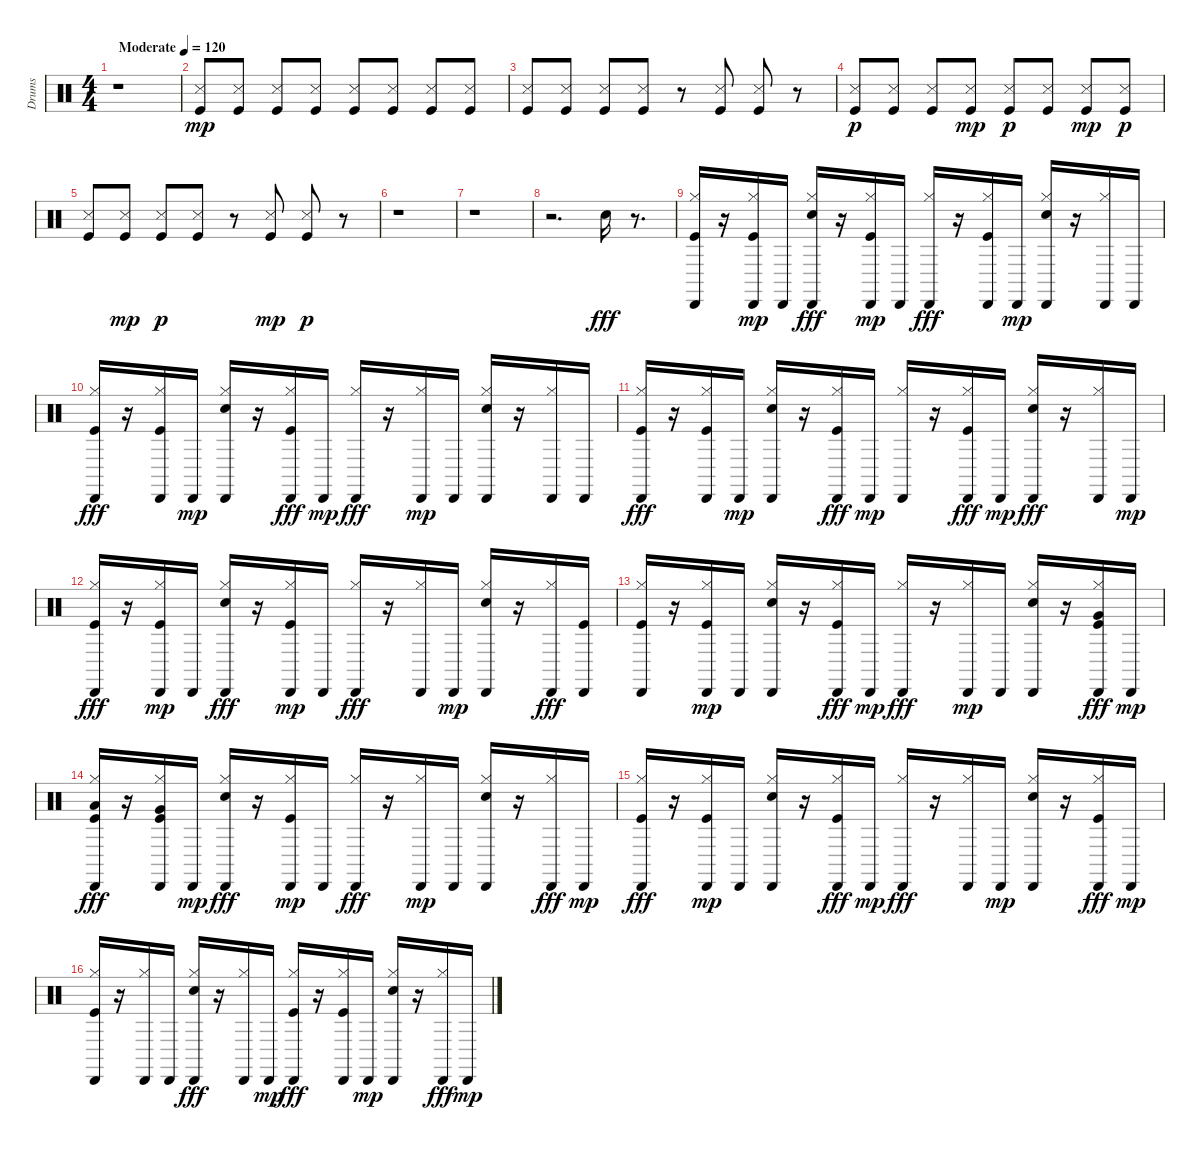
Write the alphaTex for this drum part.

\track ("Drums" "Drums") {instrument percussion}
\staff {score}
\articulation defaults
\ts (4 4)
\tempo (120 "Moderate")
\clef neutral
\ks c
r.1{dy mp} |
("Snare (side stick) 3" "Kick (hit)").8 ("Snare (side stick) 3" "Kick (hit)").8 ("Snare (side stick) 3" "Kick (hit)").8 ("Snare (side stick) 3" "Kick (hit)").8 ("Snare (side stick) 3" "Kick (hit)").8 ("Snare (side stick) 3" "Kick (hit)").8 ("Snare (side stick) 3" "Kick (hit)").8 ("Snare (side stick) 3" "Kick (hit)").8 |
("Snare (side stick) 3" "Kick (hit)").8 ("Snare (side stick) 3" "Kick (hit)").8 ("Snare (side stick) 3" "Kick (hit)").8 ("Snare (side stick) 3" "Kick (hit)").8 r.8 ("Snare (side stick) 3" "Kick (hit)").8 ("Snare (side stick) 3" "Kick (hit)").8 r.8 |
("Kick (hit)" "Snare (side stick) 3").8{dy p} ("Kick (hit)" "Snare (side stick) 3").8 ("Kick (hit)" "Snare (side stick) 3").8 ("Snare (side stick) 3" "Kick (hit)").8{dy mp} ("Kick (hit)" "Snare (side stick) 3").8{dy p} ("Kick (hit)" "Snare (side stick) 3").8 ("Snare (side stick) 3" "Kick (hit)").8{dy mp} ("Kick (hit)" "Snare (side stick) 3").8{dy p} |
("Kick (hit)" "Snare (side stick) 3").8 ("Snare (side stick) 3" "Kick (hit)").8{dy mp} ("Kick (hit)" "Snare (side stick) 3").8{dy p} ("Kick (hit)" "Snare (side stick) 3").8 r.8 ("Snare (side stick) 3" "Kick (hit)").8{dy mp} ("Kick (hit)" "Snare (side stick) 3").8{dy p} r.8 |
r.1 |
r.1 |
r.2{d} "Snare (hit) 2".16{dy fff} r.8{d} |
("Hi-Hat (closed)" "Cabasa (hit)" "Kick (hit)").16 r.16 ("Hi-Hat (closed)" "Kick (hit)" "Cabasa (hit)").16{dy mp} "Cabasa (hit)".16 ("Cabasa (hit)" "Snare (hit) 2" "Hi-Hat (closed)").16{dy fff} r.16 ("Kick (hit)" "Hi-Hat (closed)" "Cabasa (hit)").16{dy mp} "Cabasa (hit)".16 ("Cabasa (hit)" "Hi-Hat (closed)").16{dy fff} r.16 ("Hi-Hat (closed)" "Cabasa (hit)" "Kick (hit)").16 "Cabasa (hit)".16{dy mp} ("Snare (hit) 2" "Hi-Hat (closed)" "Cabasa (hit)").16 r.16 ("Hi-Hat (closed)" "Cabasa (hit)").16 "Cabasa (hit)".16 |
("Kick (hit)" "Cabasa (hit)" "Hi-Hat (closed)").16{dy fff} r.16 ("Cabasa (hit)" "Kick (hit)" "Hi-Hat (closed)").16 "Cabasa (hit)".16{dy mp} ("Hi-Hat (closed)" "Snare (hit) 2" "Cabasa (hit)").16 r.16 ("Cabasa (hit)" "Hi-Hat (closed)" "Kick (hit)").16{dy fff} "Cabasa (hit)".16{dy mp} ("Cabasa (hit)" "Hi-Hat (closed)").16{dy fff} r.16 ("Hi-Hat (closed)" "Cabasa (hit)").16{dy mp} "Cabasa (hit)".16 ("Hi-Hat (closed)" "Snare (hit) 2" "Cabasa (hit)").16 r.16 ("Hi-Hat (closed)" "Cabasa (hit)").16 "Cabasa (hit)".16 |
("Kick (hit)" "Cabasa (hit)" "Hi-Hat (closed)").16{dy fff} r.16 ("Cabasa (hit)" "Hi-Hat (closed)" "Kick (hit)").16 "Cabasa (hit)".16{dy mp} ("Hi-Hat (closed)" "Snare (hit) 2" "Cabasa (hit)").16 r.16 ("Cabasa (hit)" "Hi-Hat (closed)" "Kick (hit)").16{dy fff} "Cabasa (hit)".16{dy mp} ("Hi-Hat (closed)" "Cabasa (hit)").16 r.16 ("Cabasa (hit)" "Hi-Hat (closed)" "Kick (hit)").16{dy fff} "Cabasa (hit)".16{dy mp} ("Snare (hit) 2" "Cabasa (hit)" "Hi-Hat (closed)").16{dy fff} r.16 ("Cabasa (hit)" "Hi-Hat (closed)").16 "Cabasa (hit)".16{dy mp} |
("Cabasa (hit)" "Kick (hit)" "Hi-Hat (closed)").16{dy fff} r.16 ("Hi-Hat (closed)" "Kick (hit)" "Cabasa (hit)").16{dy mp} "Cabasa (hit)".16 ("Cabasa (hit)" "Snare (hit) 2" "Hi-Hat (closed)").16{dy fff} r.16 ("Kick (hit)" "Hi-Hat (closed)" "Cabasa (hit)").16{dy mp} "Cabasa (hit)".16 ("Cabasa (hit)" "Hi-Hat (closed)").16{dy fff} r.16 ("Cabasa (hit)" "Hi-Hat (closed)").16 "Cabasa (hit)".16{dy mp} ("Snare (hit) 2" "Hi-Hat (closed)" "Cabasa (hit)").16 r.16 ("Cabasa (hit)" "Hi-Hat (closed)").16{dy fff} ("Cabasa (hit)" "Kick (hit)").16 |
("Hi-Hat (closed)" "Cabasa (hit)" "Kick (hit)").16 r.16 ("Kick (hit)" "Hi-Hat (closed)" "Cabasa (hit)").16{dy mp} "Cabasa (hit)".16 ("Hi-Hat (closed)" "Snare (hit) 2" "Cabasa (hit)").16 r.16 ("Cabasa (hit)" "Kick (hit)" "Hi-Hat (closed)").16{dy fff} "Cabasa (hit)".16{dy mp} ("Cabasa (hit)" "Hi-Hat (closed)").16{dy fff} r.16 ("Hi-Hat (closed)" "Cabasa (hit)").16{dy mp} "Cabasa (hit)".16 ("Snare (hit) 2" "Hi-Hat (closed)" "Cabasa (hit)").16 r.16 ("Kick (hit)" "Cabasa (hit)" "Hi-Hat (closed)" "Very Low Tom (hit)").16{dy fff} "Cabasa (hit)".16{dy mp} |
("Hi-Hat (closed)" "Cabasa (hit)" "Low Floor Tom (hit)" "Kick (hit)").16{dy fff} r.16 ("Very Low Tom (hit)" "Hi-Hat (closed)" "Cabasa (hit)" "Kick (hit)").16 "Cabasa (hit)".16{dy mp} ("Cabasa (hit)" "Snare (hit) 2" "Hi-Hat (closed)").16{dy fff} r.16 ("Kick (hit)" "Hi-Hat (closed)" "Cabasa (hit)").16{dy mp} "Cabasa (hit)".16 ("Cabasa (hit)" "Hi-Hat (closed)").16{dy fff} r.16 ("Hi-Hat (closed)" "Cabasa (hit)").16{dy mp} "Cabasa (hit)".16 ("Hi-Hat (closed)" "Snare (hit) 2" "Cabasa (hit)").16 r.16 ("Cabasa (hit)" "Hi-Hat (closed)").16{dy fff} "Cabasa (hit)".16{dy mp} |
("Hi-Hat (closed)" "Cabasa (hit)" "Kick (hit)").16{dy fff} r.16 ("Kick (hit)" "Hi-Hat (closed)" "Cabasa (hit)").16{dy mp} "Cabasa (hit)".16 ("Snare (hit) 2" "Hi-Hat (closed)" "Cabasa (hit)").16 r.16 ("Kick (hit)" "Cabasa (hit)" "Hi-Hat (closed)").16{dy fff} "Cabasa (hit)".16{dy mp} ("Cabasa (hit)" "Hi-Hat (closed)").16{dy fff} r.16 ("Cabasa (hit)" "Hi-Hat (closed)").16 "Cabasa (hit)".16{dy mp} ("Snare (hit) 2" "Hi-Hat (closed)" "Cabasa (hit)").16 r.16 ("Cabasa (hit)" "Kick (hit)" "Hi-Hat (closed)").16{dy fff} "Cabasa (hit)".16{dy mp} |
("Hi-Hat (closed)" "Kick (hit)" "Cabasa (hit)").16 r.16 ("Hi-Hat (closed)" "Cabasa (hit)").16 "Cabasa (hit)".16 ("Cabasa (hit)" "Hi-Hat (closed)" "Snare (hit) 2").16{dy fff} r.16 ("Cabasa (hit)" "Hi-Hat (closed)").16 "Cabasa (hit)".16{dy mp} ("Kick (hit)" "Cabasa (hit)" "Hi-Hat (closed)").16{dy fff} r.16 ("Kick (hit)" "Cabasa (hit)" "Hi-Hat (closed)").16 "Cabasa (hit)".16{dy mp} ("Snare (hit) 2" "Hi-Hat (closed)" "Cabasa (hit)").16 r.16 ("Cabasa (hit)" "Hi-Hat (closed)").16{dy fff} "Cabasa (hit)".16{dy mp}
